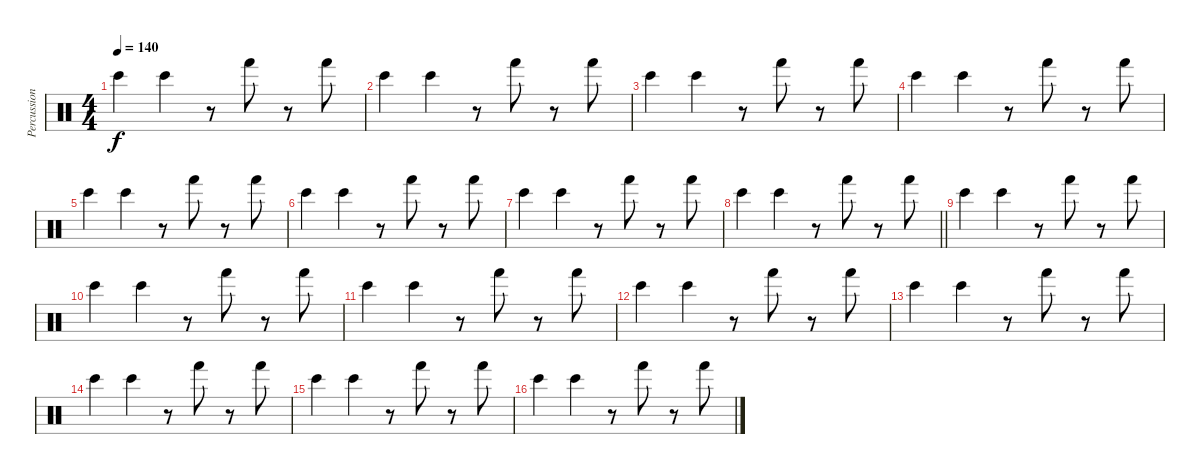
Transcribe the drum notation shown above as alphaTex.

\track ("Percussions" "Percussion") {instrument percussion}
\staff {score}
\articulation defaults
\ts (4 4)
\tempo 140
\clef neutral
\ks c "Bongo High (hit)".4{dy f} "Bongo High (hit)".4
r.8 "Hand (hit)".8 r.8 "Hand (hit)".8 |
"Bongo High (hit)".4 "Bongo High (hit)".4 r.8 "Hand (hit)".8 r.8 "Hand (hit)".8 |
"Bongo High (hit)".4 "Bongo High (hit)".4 r.8 "Hand (hit)".8 r.8 "Hand (hit)".8 |
"Bongo High (hit)".4 "Bongo High (hit)".4 r.8 "Hand (hit)".8 r.8 "Hand (hit)".8 |
"Bongo High (hit)".4 "Bongo High (hit)".4 r.8 "Hand (hit)".8 r.8 "Hand (hit)".8 |
"Bongo High (hit)".4 "Bongo High (hit)".4 r.8 "Hand (hit)".8 r.8 "Hand (hit)".8 |
"Bongo High (hit)".4 "Bongo High (hit)".4 r.8 "Hand (hit)".8 r.8 "Hand (hit)".8 |
\barLineRight lightlight "Bongo High (hit)".4 "Bongo High (hit)".4
r.8 "Hand (hit)".8 r.8 "Hand (hit)".8 |
"Bongo High (hit)".4 "Bongo High (hit)".4 r.8 "Hand (hit)".8 r.8 "Hand (hit)".8 |
"Bongo High (hit)".4 "Bongo High (hit)".4 r.8 "Hand (hit)".8 r.8 "Hand (hit)".8 |
"Bongo High (hit)".4 "Bongo High (hit)".4 r.8 "Hand (hit)".8 r.8 "Hand (hit)".8 |
"Bongo High (hit)".4 "Bongo High (hit)".4 r.8 "Hand (hit)".8 r.8 "Hand (hit)".8 |
"Bongo High (hit)".4 "Bongo High (hit)".4 r.8 "Hand (hit)".8 r.8 "Hand (hit)".8 |
"Bongo High (hit)".4 "Bongo High (hit)".4 r.8 "Hand (hit)".8 r.8 "Hand (hit)".8 |
"Bongo High (hit)".4 "Bongo High (hit)".4 r.8 "Hand (hit)".8 r.8 "Hand (hit)".8 |
"Bongo High (hit)".4 "Bongo High (hit)".4 r.8 "Hand (hit)".8 r.8 "Hand (hit)".8
